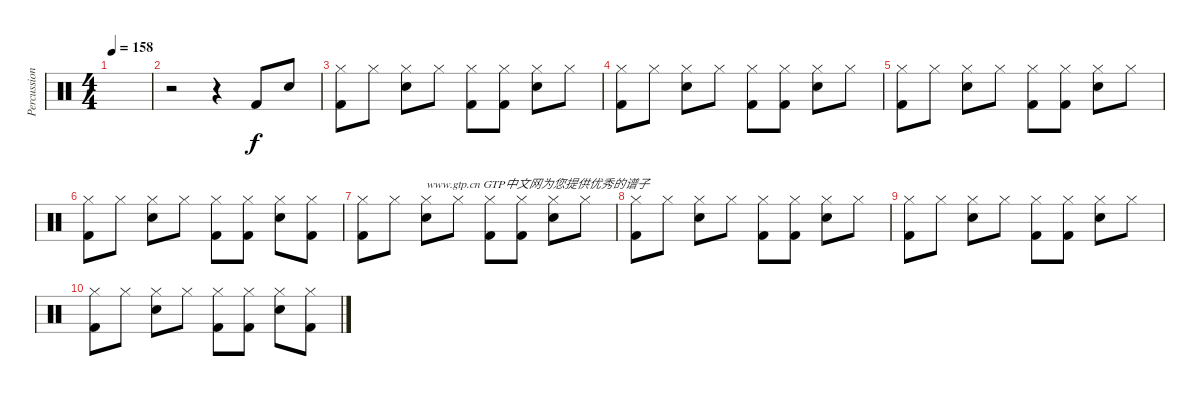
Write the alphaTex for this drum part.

\track ("Percussion" "Percussion") {instrument percussion}
\staff {score}
\articulation defaults
\ts (4 4)
\tempo 158
\clef neutral
\ks c
|
r.2 r.4 "Kick (hit) 2".8 "Snare (hit) 2".8 |
("Hi-Hat (closed)" "Kick (hit) 2").8 "Hi-Hat (closed)".8 ("Hi-Hat (closed)" "Snare (hit) 2").8 "Hi-Hat (closed)".8 ("Hi-Hat (closed)" "Kick (hit) 2").8 ("Hi-Hat (closed)" "Kick (hit) 2").8 ("Hi-Hat (closed)" "Snare (hit) 2").8 "Hi-Hat (closed)".8 |
("Hi-Hat (closed)" "Kick (hit) 2").8 "Hi-Hat (closed)".8 ("Hi-Hat (closed)" "Snare (hit) 2").8 "Hi-Hat (closed)".8 ("Hi-Hat (closed)" "Kick (hit) 2").8 ("Hi-Hat (closed)" "Kick (hit) 2").8 ("Hi-Hat (closed)" "Snare (hit) 2").8 "Hi-Hat (closed)".8 |
("Hi-Hat (closed)" "Kick (hit) 2").8 "Hi-Hat (closed)".8 ("Hi-Hat (closed)" "Snare (hit) 2").8 "Hi-Hat (closed)".8 ("Hi-Hat (closed)" "Kick (hit) 2").8 ("Hi-Hat (closed)" "Kick (hit) 2").8 ("Hi-Hat (closed)" "Snare (hit) 2").8 "Hi-Hat (closed)".8 |
("Hi-Hat (closed)" "Kick (hit) 2").8 "Hi-Hat (closed)".8 ("Hi-Hat (closed)" "Snare (hit) 2").8 "Hi-Hat (closed)".8 ("Hi-Hat (closed)" "Kick (hit) 2").8 ("Hi-Hat (closed)" "Kick (hit) 2").8 ("Hi-Hat (closed)" "Snare (hit) 2").8 ("Hi-Hat (closed)" "Kick (hit) 2").8 |
("Hi-Hat (closed)" "Kick (hit) 2").8 "Hi-Hat (closed)".8 ("Hi-Hat (closed)" "Snare (hit) 2").8{txt "www.gtp.cn GTP中文网为您提供优秀的谱子"} "Hi-Hat (closed)".8 ("Hi-Hat (closed)" "Kick (hit) 2").8 ("Hi-Hat (closed)" "Kick (hit) 2").8 ("Hi-Hat (closed)" "Snare (hit) 2").8 "Hi-Hat (closed)".8 |
("Hi-Hat (closed)" "Kick (hit) 2").8 "Hi-Hat (closed)".8 ("Hi-Hat (closed)" "Snare (hit) 2").8 "Hi-Hat (closed)".8 ("Hi-Hat (closed)" "Kick (hit) 2").8 ("Hi-Hat (closed)" "Kick (hit) 2").8 ("Hi-Hat (closed)" "Snare (hit) 2").8 "Hi-Hat (closed)".8 |
("Hi-Hat (closed)" "Kick (hit) 2").8 "Hi-Hat (closed)".8 ("Hi-Hat (closed)" "Snare (hit) 2").8 "Hi-Hat (closed)".8 ("Hi-Hat (closed)" "Kick (hit) 2").8 ("Hi-Hat (closed)" "Kick (hit) 2").8 ("Hi-Hat (closed)" "Snare (hit) 2").8 "Hi-Hat (closed)".8 |
("Hi-Hat (closed)" "Kick (hit) 2").8 "Hi-Hat (closed)".8 ("Hi-Hat (closed)" "Snare (hit) 2").8 "Hi-Hat (closed)".8 ("Hi-Hat (closed)" "Kick (hit) 2").8 ("Hi-Hat (closed)" "Kick (hit) 2").8 ("Hi-Hat (closed)" "Snare (hit) 2").8 ("Hi-Hat (closed)" "Kick (hit) 2").8
